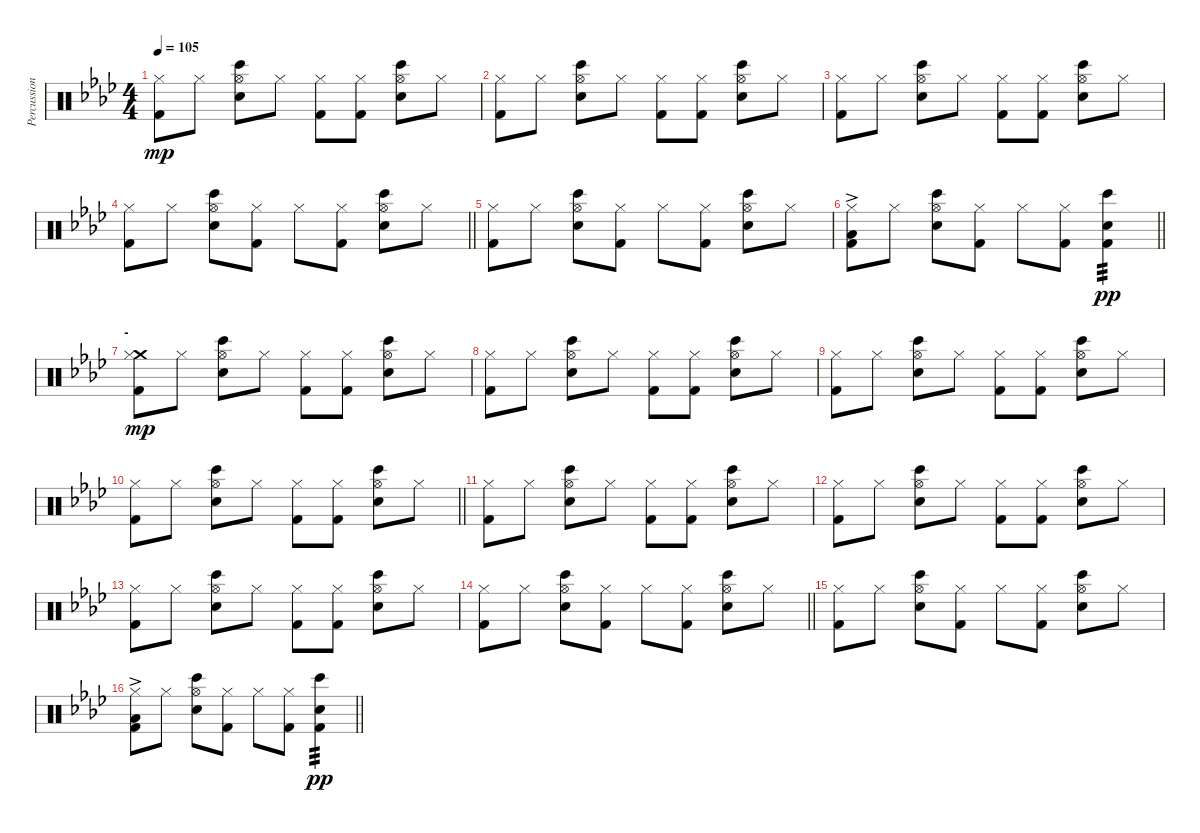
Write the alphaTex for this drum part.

\track ("Percussion" "Percussion") {instrument percussion}
\staff {score}
\articulation defaults
\ts (4 4)
\section ("" "")
\tempo 105
\clef neutral
\ks fminor
("Hi-Hat (closed)" "Kick (hit) 2").8{dy mp} "Hi-Hat (closed)".8 ("Hi-Hat (open)" "Snare (hit) 2" "Bongo High (hit)").8 "Hi-Hat (closed)".8 ("Hi-Hat (closed)" "Kick (hit) 2").8 ("Hi-Hat (closed)" "Kick (hit) 2").8 ("Hi-Hat (open)" "Snare (hit) 2" "Bongo High (hit)").8 "Hi-Hat (closed)".8 |
("Hi-Hat (closed)" "Kick (hit) 2").8 "Hi-Hat (closed)".8 ("Hi-Hat (open)" "Snare (hit) 2" "Bongo High (hit)").8 "Hi-Hat (closed)".8 ("Hi-Hat (closed)" "Kick (hit) 2").8 ("Hi-Hat (closed)" "Kick (hit) 2").8 ("Hi-Hat (open)" "Snare (hit) 2" "Bongo High (hit)").8 "Hi-Hat (closed)".8 |
("Hi-Hat (closed)" "Kick (hit) 2").8 "Hi-Hat (closed)".8 ("Hi-Hat (open)" "Snare (hit) 2" "Bongo High (hit)").8 "Hi-Hat (closed)".8 ("Hi-Hat (closed)" "Kick (hit) 2").8 ("Hi-Hat (closed)" "Kick (hit) 2").8 ("Hi-Hat (open)" "Snare (hit) 2" "Bongo High (hit)").8 "Hi-Hat (closed)".8 |
\barLineRight lightlight
("Hi-Hat (closed)" "Kick (hit) 2").8 "Hi-Hat (closed)".8 ("Hi-Hat (open)" "Snare (hit) 2" "Bongo High (hit)").8 ("Hi-Hat (closed)" "Kick (hit) 2").8 "Hi-Hat (closed)".8 ("Hi-Hat (closed)" "Kick (hit) 2").8 ("Hi-Hat (open)" "Snare (hit) 2" "Bongo High (hit)").8 "Hi-Hat (closed)".8 |
\section ("" "")
("Hi-Hat (closed)" "Kick (hit) 2").8 "Hi-Hat (closed)".8 ("Hi-Hat (open)" "Snare (hit) 2" "Bongo High (hit)").8 ("Hi-Hat (closed)" "Kick (hit) 2").8 "Hi-Hat (closed)".8 ("Hi-Hat (closed)" "Kick (hit) 2").8 ("Hi-Hat (open)" "Snare (hit) 2" "Bongo High (hit)").8 "Hi-Hat (closed)".8 |
\barLineRight lightlight
("Hi-Hat (closed)" "Low Floor Tom (hit)"{ac} "Kick (hit) 2").8 "Hi-Hat (closed)".8 ("Hi-Hat (open)" "Snare (hit) 2" "Bongo High (hit)").8 ("Hi-Hat (closed)" "Kick (hit) 2").8 "Hi-Hat (closed)".8 ("Hi-Hat (closed)" "Kick (hit) 2").8 ("Snare (hit) 2" "Bongo High (hit)" "Kick (hit) 2").4{tp 3 dy pp} |
\section ("" "-")
("Crash medium (hit)" "Hi-Hat (closed)" "Kick (hit) 2").8{dy mp} "Hi-Hat (closed)".8 ("Hi-Hat (open)" "Snare (hit) 2" "Bongo High (hit)").8 "Hi-Hat (closed)".8 ("Hi-Hat (closed)" "Kick (hit) 2").8 ("Hi-Hat (closed)" "Kick (hit) 2").8 ("Hi-Hat (open)" "Snare (hit) 2" "Bongo High (hit)").8 "Hi-Hat (closed)".8 |
("Hi-Hat (closed)" "Kick (hit) 2").8 "Hi-Hat (closed)".8 ("Hi-Hat (open)" "Snare (hit) 2" "Bongo High (hit)").8 "Hi-Hat (closed)".8 ("Hi-Hat (closed)" "Kick (hit) 2").8 ("Hi-Hat (closed)" "Kick (hit) 2").8 ("Hi-Hat (open)" "Snare (hit) 2" "Bongo High (hit)").8 "Hi-Hat (closed)".8 |
("Hi-Hat (closed)" "Kick (hit) 2").8 "Hi-Hat (closed)".8 ("Hi-Hat (open)" "Snare (hit) 2" "Bongo High (hit)").8 "Hi-Hat (closed)".8 ("Hi-Hat (closed)" "Kick (hit) 2").8 ("Hi-Hat (closed)" "Kick (hit) 2").8 ("Hi-Hat (open)" "Snare (hit) 2" "Bongo High (hit)").8 "Hi-Hat (closed)".8 |
\barLineRight lightlight
("Hi-Hat (closed)" "Kick (hit) 2").8 "Hi-Hat (closed)".8 ("Hi-Hat (open)" "Snare (hit) 2" "Bongo High (hit)").8 "Hi-Hat (closed)".8 ("Hi-Hat (closed)" "Kick (hit) 2").8 ("Hi-Hat (closed)" "Kick (hit) 2").8 ("Hi-Hat (open)" "Snare (hit) 2" "Bongo High (hit)").8 "Hi-Hat (closed)".8 |
\section ("" "")
("Hi-Hat (closed)" "Kick (hit) 2").8 "Hi-Hat (closed)".8 ("Hi-Hat (open)" "Snare (hit) 2" "Bongo High (hit)").8 "Hi-Hat (closed)".8 ("Hi-Hat (closed)" "Kick (hit) 2").8 ("Hi-Hat (closed)" "Kick (hit) 2").8 ("Hi-Hat (open)" "Snare (hit) 2" "Bongo High (hit)").8 "Hi-Hat (closed)".8 |
("Hi-Hat (closed)" "Kick (hit) 2").8 "Hi-Hat (closed)".8 ("Hi-Hat (open)" "Snare (hit) 2" "Bongo High (hit)").8 "Hi-Hat (closed)".8 ("Hi-Hat (closed)" "Kick (hit) 2").8 ("Hi-Hat (closed)" "Kick (hit) 2").8 ("Hi-Hat (open)" "Snare (hit) 2" "Bongo High (hit)").8 "Hi-Hat (closed)".8 |
("Hi-Hat (closed)" "Kick (hit) 2").8 "Hi-Hat (closed)".8 ("Hi-Hat (open)" "Snare (hit) 2" "Bongo High (hit)").8 "Hi-Hat (closed)".8 ("Hi-Hat (closed)" "Kick (hit) 2").8 ("Hi-Hat (closed)" "Kick (hit) 2").8 ("Hi-Hat (open)" "Snare (hit) 2" "Bongo High (hit)").8 "Hi-Hat (closed)".8 |
\barLineRight lightlight
("Hi-Hat (closed)" "Kick (hit) 2").8 "Hi-Hat (closed)".8 ("Hi-Hat (open)" "Snare (hit) 2" "Bongo High (hit)").8 ("Hi-Hat (closed)" "Kick (hit) 2").8 "Hi-Hat (closed)".8 ("Hi-Hat (closed)" "Kick (hit) 2").8 ("Hi-Hat (open)" "Snare (hit) 2" "Bongo High (hit)").8 "Hi-Hat (closed)".8 |
\section ("" "")
("Hi-Hat (closed)" "Kick (hit) 2").8 "Hi-Hat (closed)".8 ("Hi-Hat (open)" "Snare (hit) 2" "Bongo High (hit)").8 ("Hi-Hat (closed)" "Kick (hit) 2").8 "Hi-Hat (closed)".8 ("Hi-Hat (closed)" "Kick (hit) 2").8 ("Hi-Hat (open)" "Snare (hit) 2" "Bongo High (hit)").8 "Hi-Hat (closed)".8 |
\barLineRight lightlight
("Hi-Hat (closed)" "Low Floor Tom (hit)"{ac} "Kick (hit) 2").8 "Hi-Hat (closed)".8 ("Hi-Hat (open)" "Snare (hit) 2" "Bongo High (hit)").8 ("Hi-Hat (closed)" "Kick (hit) 2").8 "Hi-Hat (closed)".8 ("Hi-Hat (closed)" "Kick (hit) 2").8 ("Snare (hit) 2" "Bongo High (hit)" "Kick (hit) 2").4{tp 3 dy pp}
